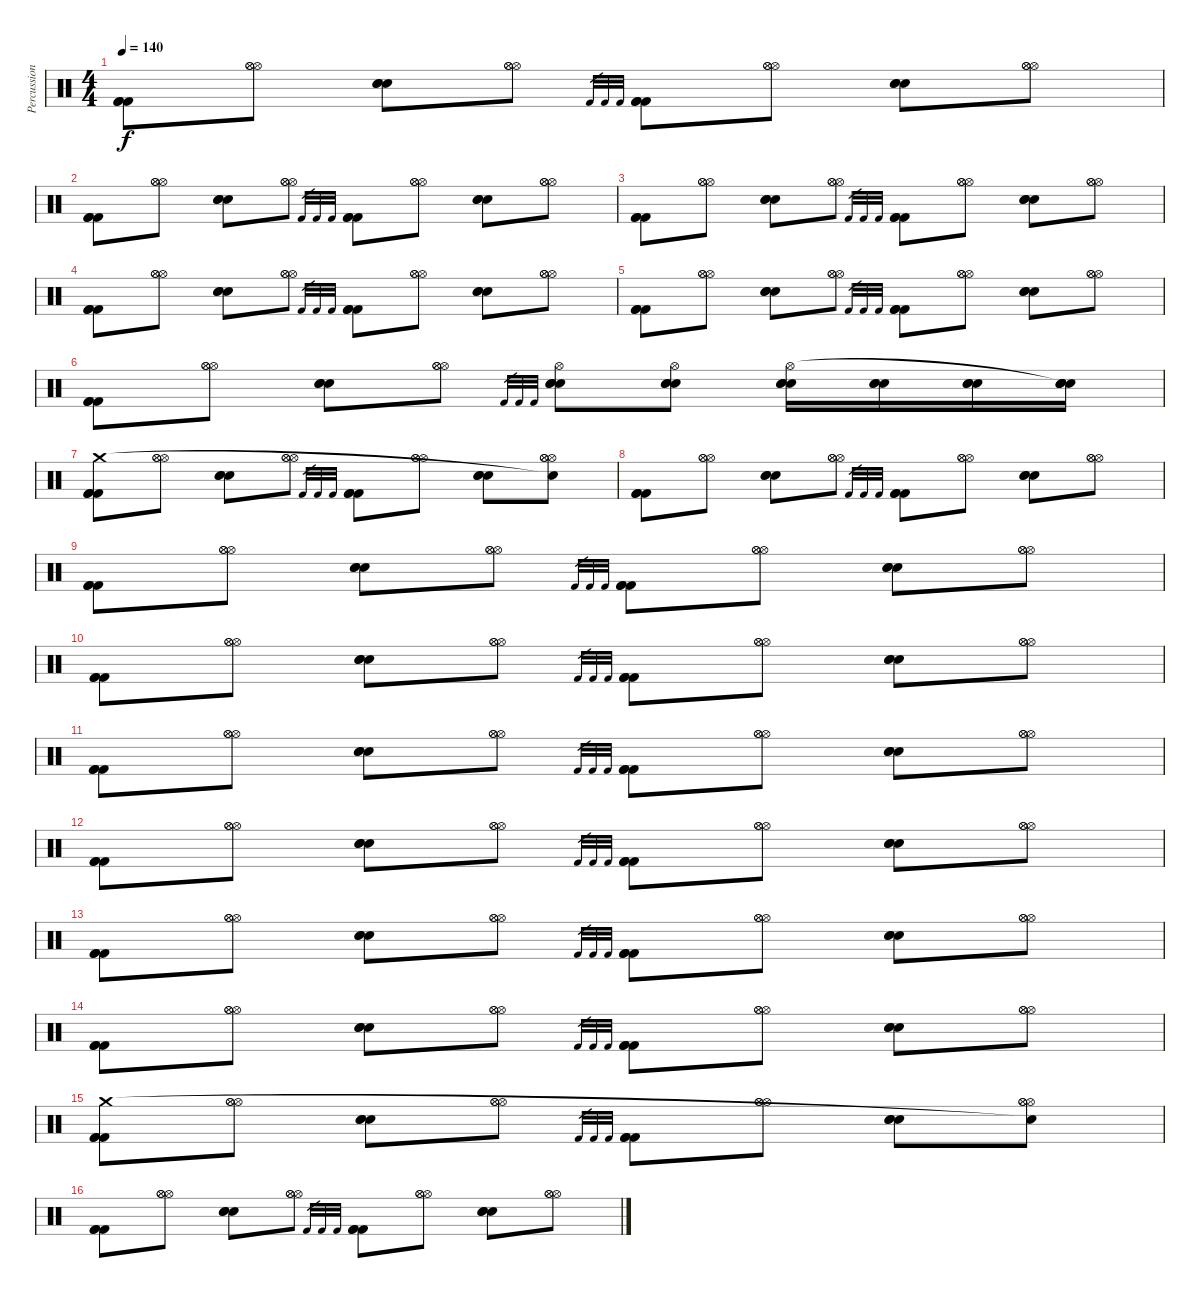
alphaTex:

\track ("Percussion" "Percussion") {instrument percussion}
\staff {score}
\articulation defaults
\ts (4 4)
\tempo 140
\clef neutral
\ks c
("Kick (hit) 2" "Kick (hit) 2" "Kick (hit) 2").8{dy f} ("Hi-Hat (open)" "Hi-Hat (open)" "Hi-Hat (open)").8 ("Electric Snare (hit)" "Electric Snare (hit)" "Electric Snare (hit)").8 ("Hi-Hat (open)" "Hi-Hat (open)" "Hi-Hat (open)").8 "Kick (hit) 2".32{gr} "Kick (hit) 2".32{gr} "Kick (hit) 2".32{gr} ("Kick (hit) 2" "Kick (hit) 2" "Kick (hit) 2").8 ("Hi-Hat (open)" "Hi-Hat (open)" "Hi-Hat (open)").8 ("Electric Snare (hit)" "Electric Snare (hit)" "Electric Snare (hit)").8 ("Hi-Hat (open)" "Hi-Hat (open)" "Hi-Hat (open)").8 |
("Kick (hit) 2" "Kick (hit) 2" "Kick (hit) 2").8 ("Hi-Hat (open)" "Hi-Hat (open)" "Hi-Hat (open)").8 ("Electric Snare (hit)" "Electric Snare (hit)" "Electric Snare (hit)").8 ("Hi-Hat (open)" "Hi-Hat (open)" "Hi-Hat (open)").8 "Kick (hit) 2".32{gr} "Kick (hit) 2".32{gr} "Kick (hit) 2".32{gr} ("Kick (hit) 2" "Kick (hit) 2" "Kick (hit) 2").8 ("Hi-Hat (open)" "Hi-Hat (open)" "Hi-Hat (open)").8 ("Electric Snare (hit)" "Electric Snare (hit)" "Electric Snare (hit)").8 ("Hi-Hat (open)" "Hi-Hat (open)" "Hi-Hat (open)").8 |
("Kick (hit) 2" "Kick (hit) 2" "Kick (hit) 2").8 ("Hi-Hat (open)" "Hi-Hat (open)" "Hi-Hat (open)").8 ("Electric Snare (hit)" "Electric Snare (hit)" "Electric Snare (hit)").8 ("Hi-Hat (open)" "Hi-Hat (open)" "Hi-Hat (open)").8 "Kick (hit) 2".32{gr} "Kick (hit) 2".32{gr} "Kick (hit) 2".32{gr} ("Kick (hit) 2" "Kick (hit) 2" "Kick (hit) 2").8 ("Hi-Hat (open)" "Hi-Hat (open)" "Hi-Hat (open)").8 ("Electric Snare (hit)" "Electric Snare (hit)" "Electric Snare (hit)").8 ("Hi-Hat (open)" "Hi-Hat (open)" "Hi-Hat (open)").8 |
("Kick (hit) 2" "Kick (hit) 2" "Kick (hit) 2").8 ("Hi-Hat (open)" "Hi-Hat (open)" "Hi-Hat (open)").8 ("Electric Snare (hit)" "Electric Snare (hit)" "Electric Snare (hit)").8 ("Hi-Hat (open)" "Hi-Hat (open)" "Hi-Hat (open)").8 "Kick (hit) 2".32{gr} "Kick (hit) 2".32{gr} "Kick (hit) 2".32{gr} ("Kick (hit) 2" "Kick (hit) 2" "Kick (hit) 2").8 ("Hi-Hat (open)" "Hi-Hat (open)" "Hi-Hat (open)").8 ("Electric Snare (hit)" "Electric Snare (hit)" "Electric Snare (hit)").8 ("Hi-Hat (open)" "Hi-Hat (open)" "Hi-Hat (open)").8 |
("Kick (hit) 2" "Kick (hit) 2" "Kick (hit) 2").8 ("Hi-Hat (open)" "Hi-Hat (open)" "Hi-Hat (open)").8 ("Electric Snare (hit)" "Electric Snare (hit)" "Electric Snare (hit)").8 ("Hi-Hat (open)" "Hi-Hat (open)" "Hi-Hat (open)").8 "Kick (hit) 2".32{gr} "Kick (hit) 2".32{gr} "Kick (hit) 2".32{gr} ("Kick (hit) 2" "Kick (hit) 2" "Kick (hit) 2").8 ("Hi-Hat (open)" "Hi-Hat (open)" "Hi-Hat (open)").8 ("Electric Snare (hit)" "Electric Snare (hit)" "Electric Snare (hit)").8 ("Hi-Hat (open)" "Hi-Hat (open)" "Hi-Hat (open)").8 |
("Kick (hit) 2" "Kick (hit) 2" "Kick (hit) 2").8 ("Hi-Hat (open)" "Hi-Hat (open)" "Hi-Hat (open)").8 ("Electric Snare (hit)" "Electric Snare (hit)" "Electric Snare (hit)").8 ("Hi-Hat (open)" "Hi-Hat (open)" "Hi-Hat (open)").8 "Kick (hit) 2".32{gr} "Kick (hit) 2".32{gr} "Kick (hit) 2".32{gr} ("Electric Snare (hit)" "Electric Snare (hit)" "Electric Snare (hit)" "Hi-Hat (open)").8 ("Electric Snare (hit)" "Electric Snare (hit)" "Electric Snare (hit)" "Hi-Hat (open)").8 ("Electric Snare (hit)" "Electric Snare (hit)" "Electric Snare (hit)" "Hi-Hat (open)").16 ("Electric Snare (hit)" "Electric Snare (hit)" "Electric Snare (hit)").16 ("Electric Snare (hit)" "Electric Snare (hit)" "Electric Snare (hit)").16 ("Electric Snare (hit)" "Electric Snare (hit)" "Electric Snare (hit)" "Snare (hit)"{t}).16 |
("Kick (hit) 2" "Kick (hit) 2" "Kick (hit) 2" "Crash medium (hit)").8 ("Hi-Hat (open)" "Hi-Hat (open)" "Hi-Hat (open)").8 ("Electric Snare (hit)" "Electric Snare (hit)" "Electric Snare (hit)").8 ("Hi-Hat (open)" "Hi-Hat (open)" "Hi-Hat (open)").8 "Kick (hit) 2".32{gr} "Kick (hit) 2".32{gr} "Kick (hit) 2".32{gr} ("Kick (hit) 2" "Kick (hit) 2" "Kick (hit) 2").8 ("Hi-Hat (open)" "Hi-Hat (open)" "Hi-Hat (open)").8 ("Electric Snare (hit)" "Electric Snare (hit)" "Electric Snare (hit)").8 ("Hi-Hat (open)" "Hi-Hat (open)" "Hi-Hat (open)" "Snare (hit)"{t}).8 |
("Kick (hit) 2" "Kick (hit) 2" "Kick (hit) 2").8 ("Hi-Hat (open)" "Hi-Hat (open)" "Hi-Hat (open)").8 ("Electric Snare (hit)" "Electric Snare (hit)" "Electric Snare (hit)").8 ("Hi-Hat (open)" "Hi-Hat (open)" "Hi-Hat (open)").8 "Kick (hit) 2".32{gr} "Kick (hit) 2".32{gr} "Kick (hit) 2".32{gr} ("Kick (hit) 2" "Kick (hit) 2" "Kick (hit) 2").8 ("Hi-Hat (open)" "Hi-Hat (open)" "Hi-Hat (open)").8 ("Electric Snare (hit)" "Electric Snare (hit)" "Electric Snare (hit)").8 ("Hi-Hat (open)" "Hi-Hat (open)" "Hi-Hat (open)").8 |
("Kick (hit) 2" "Kick (hit) 2" "Kick (hit) 2").8 ("Hi-Hat (open)" "Hi-Hat (open)" "Hi-Hat (open)").8 ("Electric Snare (hit)" "Electric Snare (hit)" "Electric Snare (hit)").8 ("Hi-Hat (open)" "Hi-Hat (open)" "Hi-Hat (open)").8 "Kick (hit) 2".32{gr} "Kick (hit) 2".32{gr} "Kick (hit) 2".32{gr} ("Kick (hit) 2" "Kick (hit) 2" "Kick (hit) 2").8 ("Hi-Hat (open)" "Hi-Hat (open)" "Hi-Hat (open)").8 ("Electric Snare (hit)" "Electric Snare (hit)" "Electric Snare (hit)").8 ("Hi-Hat (open)" "Hi-Hat (open)" "Hi-Hat (open)").8 |
("Kick (hit) 2" "Kick (hit) 2" "Kick (hit) 2").8 ("Hi-Hat (open)" "Hi-Hat (open)" "Hi-Hat (open)").8 ("Electric Snare (hit)" "Electric Snare (hit)" "Electric Snare (hit)").8 ("Hi-Hat (open)" "Hi-Hat (open)" "Hi-Hat (open)").8 "Kick (hit) 2".32{gr} "Kick (hit) 2".32{gr} "Kick (hit) 2".32{gr} ("Kick (hit) 2" "Kick (hit) 2" "Kick (hit) 2").8 ("Hi-Hat (open)" "Hi-Hat (open)" "Hi-Hat (open)").8 ("Electric Snare (hit)" "Electric Snare (hit)" "Electric Snare (hit)").8 ("Hi-Hat (open)" "Hi-Hat (open)" "Hi-Hat (open)").8 |
("Kick (hit) 2" "Kick (hit) 2" "Kick (hit) 2").8 ("Hi-Hat (open)" "Hi-Hat (open)" "Hi-Hat (open)").8 ("Electric Snare (hit)" "Electric Snare (hit)" "Electric Snare (hit)").8 ("Hi-Hat (open)" "Hi-Hat (open)" "Hi-Hat (open)").8 "Kick (hit) 2".32{gr} "Kick (hit) 2".32{gr} "Kick (hit) 2".32{gr} ("Kick (hit) 2" "Kick (hit) 2" "Kick (hit) 2").8 ("Hi-Hat (open)" "Hi-Hat (open)" "Hi-Hat (open)").8 ("Electric Snare (hit)" "Electric Snare (hit)" "Electric Snare (hit)").8 ("Hi-Hat (open)" "Hi-Hat (open)" "Hi-Hat (open)").8 |
("Kick (hit) 2" "Kick (hit) 2" "Kick (hit) 2").8 ("Hi-Hat (open)" "Hi-Hat (open)" "Hi-Hat (open)").8 ("Electric Snare (hit)" "Electric Snare (hit)" "Electric Snare (hit)").8 ("Hi-Hat (open)" "Hi-Hat (open)" "Hi-Hat (open)").8 "Kick (hit) 2".32{gr} "Kick (hit) 2".32{gr} "Kick (hit) 2".32{gr} ("Kick (hit) 2" "Kick (hit) 2" "Kick (hit) 2").8 ("Hi-Hat (open)" "Hi-Hat (open)" "Hi-Hat (open)").8 ("Electric Snare (hit)" "Electric Snare (hit)" "Electric Snare (hit)").8 ("Hi-Hat (open)" "Hi-Hat (open)" "Hi-Hat (open)").8 |
("Kick (hit) 2" "Kick (hit) 2" "Kick (hit) 2").8 ("Hi-Hat (open)" "Hi-Hat (open)" "Hi-Hat (open)").8 ("Electric Snare (hit)" "Electric Snare (hit)" "Electric Snare (hit)").8 ("Hi-Hat (open)" "Hi-Hat (open)" "Hi-Hat (open)").8 "Kick (hit) 2".32{gr} "Kick (hit) 2".32{gr} "Kick (hit) 2".32{gr} ("Kick (hit) 2" "Kick (hit) 2" "Kick (hit) 2").8 ("Hi-Hat (open)" "Hi-Hat (open)" "Hi-Hat (open)").8 ("Electric Snare (hit)" "Electric Snare (hit)" "Electric Snare (hit)").8 ("Hi-Hat (open)" "Hi-Hat (open)" "Hi-Hat (open)").8 |
("Kick (hit) 2" "Kick (hit) 2" "Kick (hit) 2").8 ("Hi-Hat (open)" "Hi-Hat (open)" "Hi-Hat (open)").8 ("Electric Snare (hit)" "Electric Snare (hit)" "Electric Snare (hit)").8 ("Hi-Hat (open)" "Hi-Hat (open)" "Hi-Hat (open)").8 "Kick (hit) 2".32{gr} "Kick (hit) 2".32{gr} "Kick (hit) 2".32{gr} ("Kick (hit) 2" "Kick (hit) 2" "Kick (hit) 2").8 ("Hi-Hat (open)" "Hi-Hat (open)" "Hi-Hat (open)").8 ("Electric Snare (hit)" "Electric Snare (hit)" "Electric Snare (hit)").8 ("Hi-Hat (open)" "Hi-Hat (open)" "Hi-Hat (open)").8 |
("Kick (hit) 2" "Kick (hit) 2" "Kick (hit) 2" "Crash medium (hit)").8 ("Hi-Hat (open)" "Hi-Hat (open)" "Hi-Hat (open)").8 ("Electric Snare (hit)" "Electric Snare (hit)" "Electric Snare (hit)").8 ("Hi-Hat (open)" "Hi-Hat (open)" "Hi-Hat (open)").8 "Kick (hit) 2".32{gr} "Kick (hit) 2".32{gr} "Kick (hit) 2".32{gr} ("Kick (hit) 2" "Kick (hit) 2" "Kick (hit) 2").8 ("Hi-Hat (open)" "Hi-Hat (open)" "Hi-Hat (open)").8 ("Electric Snare (hit)" "Electric Snare (hit)" "Electric Snare (hit)").8 ("Hi-Hat (open)" "Hi-Hat (open)" "Hi-Hat (open)" "Snare (hit)"{t}).8 |
("Kick (hit) 2" "Kick (hit) 2" "Kick (hit) 2").8 ("Hi-Hat (open)" "Hi-Hat (open)" "Hi-Hat (open)").8 ("Electric Snare (hit)" "Electric Snare (hit)" "Electric Snare (hit)").8 ("Hi-Hat (open)" "Hi-Hat (open)" "Hi-Hat (open)").8 "Kick (hit) 2".32{gr} "Kick (hit) 2".32{gr} "Kick (hit) 2".32{gr} ("Kick (hit) 2" "Kick (hit) 2" "Kick (hit) 2").8 ("Hi-Hat (open)" "Hi-Hat (open)" "Hi-Hat (open)").8 ("Electric Snare (hit)" "Electric Snare (hit)" "Electric Snare (hit)").8 ("Hi-Hat (open)" "Hi-Hat (open)" "Hi-Hat (open)").8
